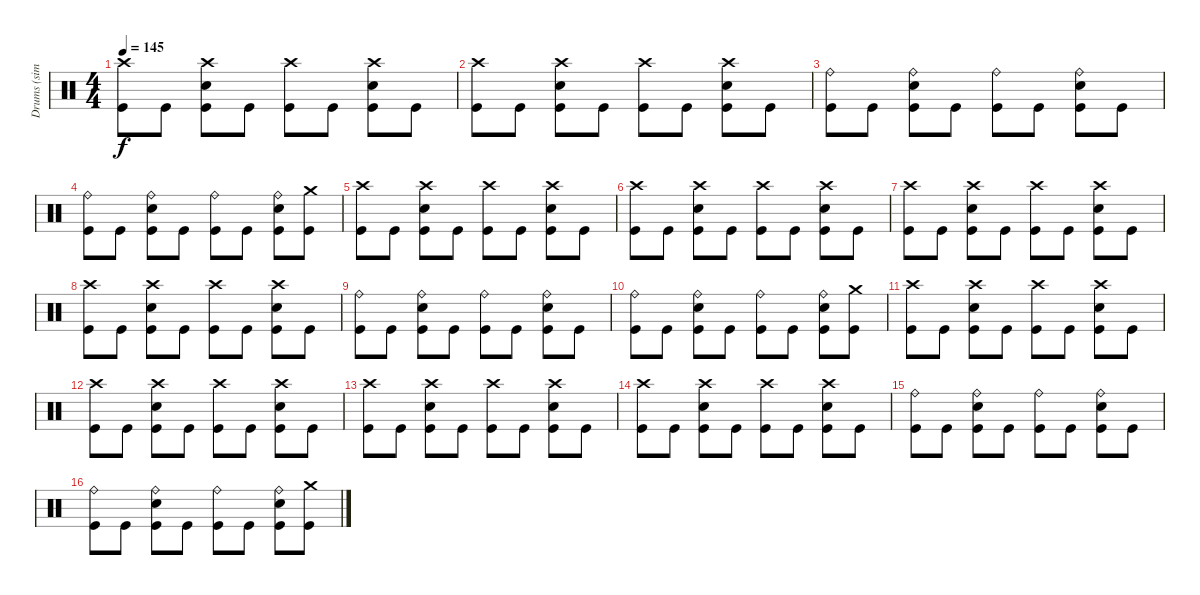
\track ("Drums (simple)" "Drums (sim") {instrument percussion}
\staff {score}
\articulation defaults
\ts (4 4)
\tempo 145
\clef neutral
\ks c
("Crash high (hit)" "Kick (hit)").8{dy f} "Kick (hit)".8 ("Crash high (hit)" "Snare (hit) 2" "Kick (hit)").8 "Kick (hit)".8 ("Crash high (hit)" "Kick (hit)").8 "Kick (hit)".8 ("Crash high (hit)" "Snare (hit) 2" "Kick (hit)").8 "Kick (hit)".8 |
("Crash high (hit)" "Kick (hit)").8 "Kick (hit)".8 ("Crash high (hit)" "Snare (hit) 2" "Kick (hit)").8 "Kick (hit)".8 ("Crash high (hit)" "Kick (hit)").8 "Kick (hit)".8 ("Crash high (hit)" "Snare (hit) 2" "Kick (hit)").8 "Kick (hit)".8 |
("Ride (bell)" "Kick (hit)").8 "Kick (hit)".8 ("Ride (bell)" "Snare (hit) 2" "Kick (hit)").8 "Kick (hit)".8 ("Ride (bell)" "Kick (hit)").8 "Kick (hit)".8 ("Ride (bell)" "Snare (hit) 2" "Kick (hit)").8 "Kick (hit)".8 |
("Ride (bell)" "Kick (hit)").8 "Kick (hit)".8 ("Ride (bell)" "Snare (hit) 2" "Kick (hit)").8 "Kick (hit)".8 ("Ride (bell)" "Kick (hit)").8 "Kick (hit)".8 ("Ride (bell)" "Snare (hit) 2" "Kick (hit)").8 ("Crash medium (hit)" "Kick (hit)").8 |
("Crash high (hit)" "Kick (hit)").8 "Kick (hit)".8 ("Crash high (hit)" "Snare (hit) 2" "Kick (hit)").8 "Kick (hit)".8 ("Crash high (hit)" "Kick (hit)").8 "Kick (hit)".8 ("Crash high (hit)" "Snare (hit) 2" "Kick (hit)").8 "Kick (hit)".8 |
("Crash high (hit)" "Kick (hit)").8 "Kick (hit)".8 ("Crash high (hit)" "Snare (hit) 2" "Kick (hit)").8 "Kick (hit)".8 ("Crash high (hit)" "Kick (hit)").8 "Kick (hit)".8 ("Crash high (hit)" "Snare (hit) 2" "Kick (hit)").8 "Kick (hit)".8 |
("Crash high (hit)" "Kick (hit)").8 "Kick (hit)".8 ("Crash high (hit)" "Snare (hit) 2" "Kick (hit)").8 "Kick (hit)".8 ("Crash high (hit)" "Kick (hit)").8 "Kick (hit)".8 ("Crash high (hit)" "Snare (hit) 2" "Kick (hit)").8 "Kick (hit)".8 |
("Crash high (hit)" "Kick (hit)").8 "Kick (hit)".8 ("Crash high (hit)" "Snare (hit) 2" "Kick (hit)").8 "Kick (hit)".8 ("Crash high (hit)" "Kick (hit)").8 "Kick (hit)".8 ("Crash high (hit)" "Snare (hit) 2" "Kick (hit)").8 "Kick (hit)".8 |
("Ride (bell)" "Kick (hit)").8 "Kick (hit)".8 ("Ride (bell)" "Snare (hit) 2" "Kick (hit)").8 "Kick (hit)".8 ("Ride (bell)" "Kick (hit)").8 "Kick (hit)".8 ("Ride (bell)" "Snare (hit) 2" "Kick (hit)").8 "Kick (hit)".8 |
("Ride (bell)" "Kick (hit)").8 "Kick (hit)".8 ("Ride (bell)" "Snare (hit) 2" "Kick (hit)").8 "Kick (hit)".8 ("Ride (bell)" "Kick (hit)").8 "Kick (hit)".8 ("Ride (bell)" "Snare (hit) 2" "Kick (hit)").8 ("Crash medium (hit)" "Kick (hit)").8 |
("Crash high (hit)" "Kick (hit)").8 "Kick (hit)".8 ("Crash high (hit)" "Snare (hit) 2" "Kick (hit)").8 "Kick (hit)".8 ("Crash high (hit)" "Kick (hit)").8 "Kick (hit)".8 ("Crash high (hit)" "Snare (hit) 2" "Kick (hit)").8 "Kick (hit)".8 |
("Crash high (hit)" "Kick (hit)").8 "Kick (hit)".8 ("Crash high (hit)" "Snare (hit) 2" "Kick (hit)").8 "Kick (hit)".8 ("Crash high (hit)" "Kick (hit)").8 "Kick (hit)".8 ("Crash high (hit)" "Snare (hit) 2" "Kick (hit)").8 "Kick (hit)".8 |
("Crash high (hit)" "Kick (hit)").8 "Kick (hit)".8 ("Crash high (hit)" "Snare (hit) 2" "Kick (hit)").8 "Kick (hit)".8 ("Crash high (hit)" "Kick (hit)").8 "Kick (hit)".8 ("Crash high (hit)" "Snare (hit) 2" "Kick (hit)").8 "Kick (hit)".8 |
("Crash high (hit)" "Kick (hit)").8 "Kick (hit)".8 ("Crash high (hit)" "Snare (hit) 2" "Kick (hit)").8 "Kick (hit)".8 ("Crash high (hit)" "Kick (hit)").8 "Kick (hit)".8 ("Crash high (hit)" "Snare (hit) 2" "Kick (hit)").8 "Kick (hit)".8 |
("Ride (bell)" "Kick (hit)").8 "Kick (hit)".8 ("Ride (bell)" "Snare (hit) 2" "Kick (hit)").8 "Kick (hit)".8 ("Ride (bell)" "Kick (hit)").8 "Kick (hit)".8 ("Ride (bell)" "Snare (hit) 2" "Kick (hit)").8 "Kick (hit)".8 |
("Ride (bell)" "Kick (hit)").8 "Kick (hit)".8 ("Ride (bell)" "Snare (hit) 2" "Kick (hit)").8 "Kick (hit)".8 ("Ride (bell)" "Kick (hit)").8 "Kick (hit)".8 ("Ride (bell)" "Snare (hit) 2" "Kick (hit)").8 ("Crash medium (hit)" "Kick (hit)").8
